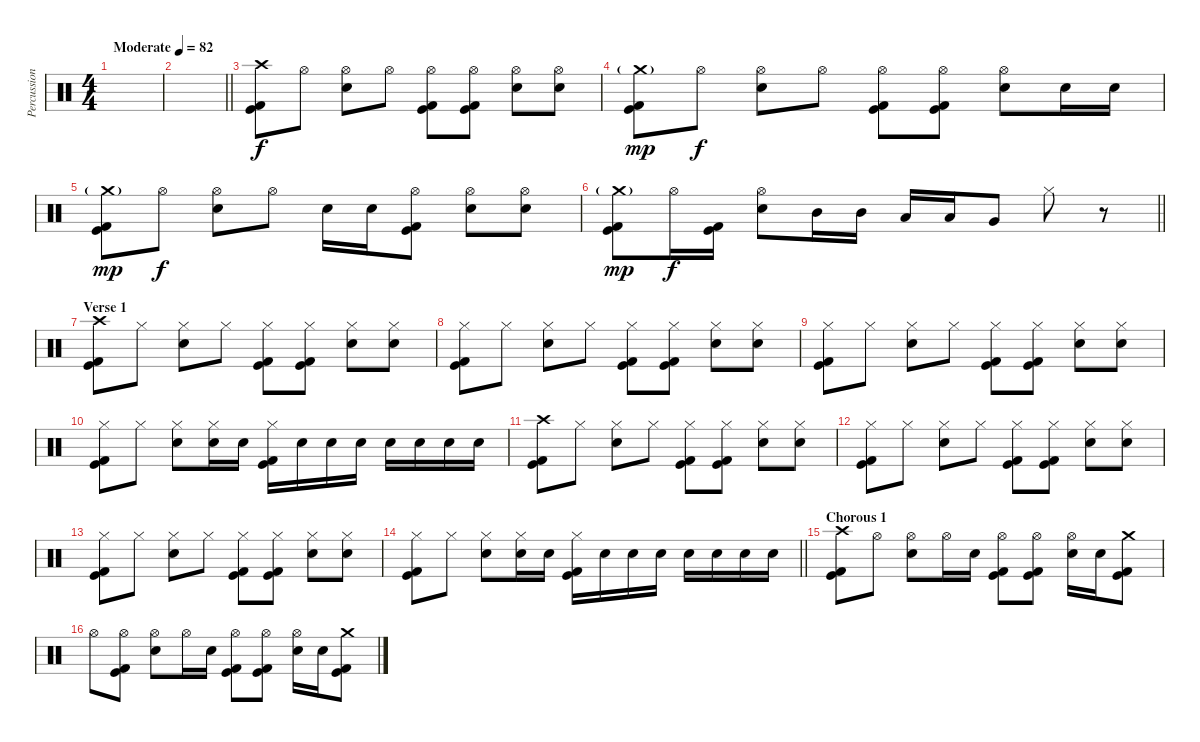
\track ("Percussion" "Percussion") {instrument percussion}
\staff {score}
\articulation defaults
\ts (4 4)
\tempo (82 "Moderate")
\clef neutral
\ks c
|
\barLineRight lightlight
|
\section ("" "")
("Crash high (hit)" "Kick (hit)" "Kick (hit) 2").8 "Hi-Hat (open)".8 ("Hi-Hat (open)" "Electric Snare (hit)").8 "Hi-Hat (open)".8 ("Hi-Hat (open)" "Kick (hit)" "Kick (hit) 2").8 ("Hi-Hat (open)" "Kick (hit)" "Kick (hit) 2").8 ("Hi-Hat (open)" "Electric Snare (hit)").8 ("Hi-Hat (open)" "Electric Snare (hit)").8 |
("Crash medium (hit)"{g} "Kick (hit)" "Kick (hit) 2").8{dy mp} "Hi-Hat (open)".8{dy f} ("Hi-Hat (open)" "Electric Snare (hit)").8 "Hi-Hat (open)".8 ("Hi-Hat (open)" "Kick (hit)" "Kick (hit) 2").8 ("Hi-Hat (open)" "Kick (hit)" "Kick (hit) 2").8 ("Hi-Hat (open)" "Electric Snare (hit)").8 "Electric Snare (hit)".16 "Electric Snare (hit)".16 |
("Crash medium (hit)"{g} "Kick (hit)" "Kick (hit) 2").8{dy mp} "Hi-Hat (open)".8{dy f} ("Hi-Hat (open)" "Electric Snare (hit)").8 "Hi-Hat (open)".8 "Electric Snare (hit)".16 "Electric Snare (hit)".16 ("Hi-Hat (open)" "Kick (hit)" "Kick (hit) 2").8 ("Hi-Hat (open)" "Electric Snare (hit)").8 ("Hi-Hat (open)" "Electric Snare (hit)").8 |
\barLineRight lightlight
("Crash medium (hit)"{g} "Kick (hit)" "Kick (hit) 2").8{dy mp} "Hi-Hat (open)".16{dy f} ("Kick (hit)" "Kick (hit) 2").16 ("Hi-Hat (open)" "Electric Snare (hit)").8 "Mid Tom (hit)".16 "Mid Tom (hit)".16 "Low Tom (hit)".16 "Low Tom (hit)".16 "Very Low Tom (hit)".8 "Hi-Hat (closed)".8 r.8 |
\section ("" "Verse 1")
("Crash high (hit)" "Kick (hit)" "Kick (hit) 2").8 "Hi-Hat (closed)".8 ("Hi-Hat (closed)" "Electric Snare (hit)").8 "Hi-Hat (closed)".8 ("Hi-Hat (closed)" "Kick (hit)" "Kick (hit) 2").8 ("Hi-Hat (closed)" "Kick (hit)" "Kick (hit) 2").8 ("Hi-Hat (closed)" "Electric Snare (hit)").8 ("Hi-Hat (closed)" "Electric Snare (hit)").8 |
("Hi-Hat (closed)" "Kick (hit)" "Kick (hit) 2").8 "Hi-Hat (closed)".8 ("Hi-Hat (closed)" "Electric Snare (hit)").8 "Hi-Hat (closed)".8 ("Hi-Hat (closed)" "Kick (hit)" "Kick (hit) 2").8 ("Hi-Hat (closed)" "Kick (hit)" "Kick (hit) 2").8 ("Hi-Hat (closed)" "Electric Snare (hit)").8 ("Hi-Hat (closed)" "Electric Snare (hit)").8 |
("Hi-Hat (closed)" "Kick (hit)" "Kick (hit) 2").8 "Hi-Hat (closed)".8 ("Hi-Hat (closed)" "Electric Snare (hit)").8 "Hi-Hat (closed)".8 ("Hi-Hat (closed)" "Kick (hit)" "Kick (hit) 2").8 ("Hi-Hat (closed)" "Kick (hit)" "Kick (hit) 2").8 ("Hi-Hat (closed)" "Electric Snare (hit)").8 ("Hi-Hat (closed)" "Electric Snare (hit)").8 |
("Hi-Hat (closed)" "Kick (hit)" "Kick (hit) 2").8 "Hi-Hat (closed)".8 ("Hi-Hat (closed)" "Electric Snare (hit)").8 ("Hi-Hat (closed)" "Electric Snare (hit)").16 "Electric Snare (hit)".16 ("Hi-Hat (closed)" "Kick (hit)" "Kick (hit) 2").16 "Electric Snare (hit)".16 "Electric Snare (hit)".16 "Electric Snare (hit)".16 "Electric Snare (hit)".16 "Electric Snare (hit)".16 "Electric Snare (hit)".16 "Electric Snare (hit)".16 |
("Crash high (hit)" "Kick (hit)" "Kick (hit) 2").8 "Hi-Hat (closed)".8 ("Hi-Hat (closed)" "Electric Snare (hit)").8 "Hi-Hat (closed)".8 ("Hi-Hat (closed)" "Kick (hit)" "Kick (hit) 2").8 ("Hi-Hat (closed)" "Kick (hit)" "Kick (hit) 2").8 ("Hi-Hat (closed)" "Electric Snare (hit)").8 ("Hi-Hat (closed)" "Electric Snare (hit)").8 |
("Hi-Hat (closed)" "Kick (hit)" "Kick (hit) 2").8 "Hi-Hat (closed)".8 ("Hi-Hat (closed)" "Electric Snare (hit)").8 "Hi-Hat (closed)".8 ("Hi-Hat (closed)" "Kick (hit)" "Kick (hit) 2").8 ("Hi-Hat (closed)" "Kick (hit)" "Kick (hit) 2").8 ("Hi-Hat (closed)" "Electric Snare (hit)").8 ("Hi-Hat (closed)" "Electric Snare (hit)").8 |
("Hi-Hat (closed)" "Kick (hit)" "Kick (hit) 2").8 "Hi-Hat (closed)".8 ("Hi-Hat (closed)" "Electric Snare (hit)").8 "Hi-Hat (closed)".8 ("Hi-Hat (closed)" "Kick (hit)" "Kick (hit) 2").8 ("Hi-Hat (closed)" "Kick (hit)" "Kick (hit) 2").8 ("Hi-Hat (closed)" "Electric Snare (hit)").8 ("Hi-Hat (closed)" "Electric Snare (hit)").8 |
\barLineRight lightlight
("Hi-Hat (closed)" "Kick (hit)" "Kick (hit) 2").8 "Hi-Hat (closed)".8 ("Hi-Hat (closed)" "Electric Snare (hit)").8 ("Hi-Hat (closed)" "Electric Snare (hit)").16 "Electric Snare (hit)".16 ("Hi-Hat (closed)" "Kick (hit)" "Kick (hit) 2").16 "Electric Snare (hit)".16 "Electric Snare (hit)".16 "Electric Snare (hit)".16 "Electric Snare (hit)".16 "Electric Snare (hit)".16 "Electric Snare (hit)".16 "Electric Snare (hit)".16 |
\section ("" "Chorous 1")
("Crash high (hit)" "Kick (hit)" "Kick (hit) 2").8 "Hi-Hat (open)".8 ("Hi-Hat (open)" "Electric Snare (hit)").8 "Hi-Hat (open)".16 "Electric Snare (hit)".16 ("Hi-Hat (open)" "Kick (hit)" "Kick (hit) 2").8 ("Hi-Hat (open)" "Kick (hit)" "Kick (hit) 2").8 ("Hi-Hat (open)" "Electric Snare (hit)").16 "Electric Snare (hit)".16 ("Crash medium (hit)" "Kick (hit)" "Kick (hit) 2").8 |
"Hi-Hat (open)".8 ("Hi-Hat (open)" "Kick (hit)" "Kick (hit) 2").8 ("Hi-Hat (open)" "Electric Snare (hit)").8 "Hi-Hat (open)".16 "Electric Snare (hit)".16 ("Hi-Hat (open)" "Kick (hit)" "Kick (hit) 2").8 ("Hi-Hat (open)" "Kick (hit)" "Kick (hit) 2").8 ("Hi-Hat (open)" "Electric Snare (hit)").16 "Electric Snare (hit)".16 ("Crash medium (hit)" "Kick (hit)" "Kick (hit) 2").8
